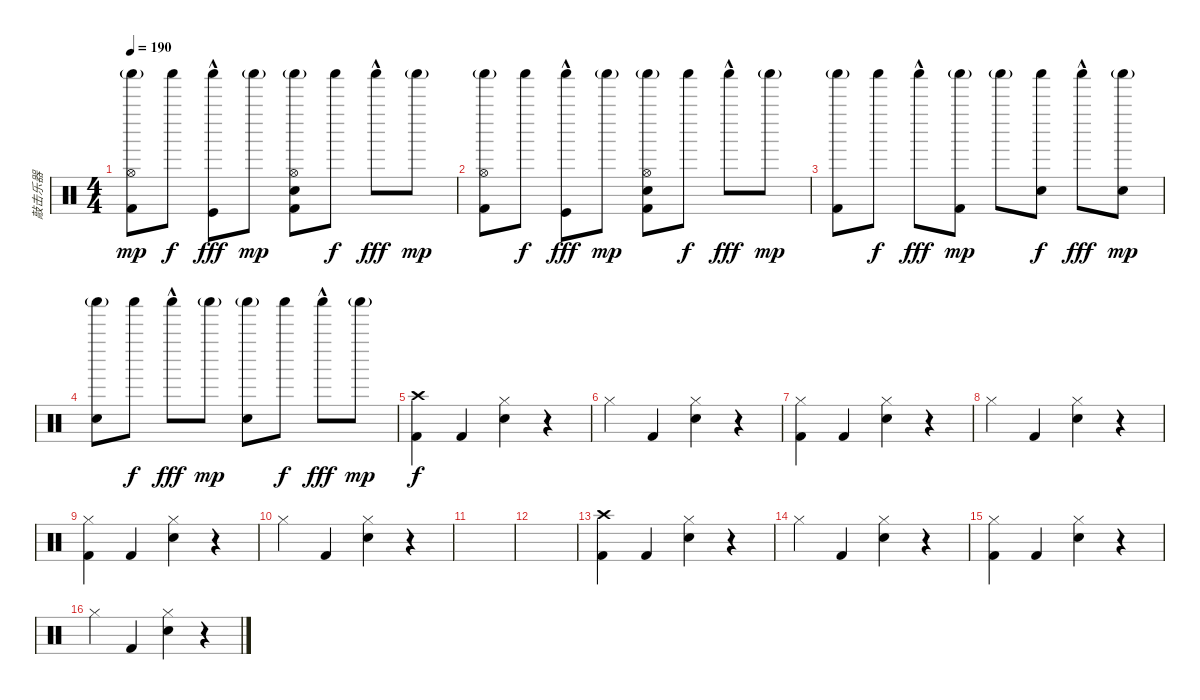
\track ("敲击乐器" "敲击乐器") {instrument percussion}
\staff {score}
\articulation defaults
\ts (4 4)
\tempo 190
\clef neutral
\ks c
("Hi-Hat (open)" "Kick (hit) 2" "Shaker (hit)"{g}).8{dy mp} "Shaker (hit)".8{dy f} ("Kick (hit)" "Shaker (hit)"{hac}).8{dy fff} "Shaker (hit)"{g}.8{dy mp} ("Hi-Hat (open)" "Snare (hit) 2" "Kick (hit) 2" "Shaker (hit)"{g}).8 "Shaker (hit)".8{dy f} "Shaker (hit)"{hac}.8{dy fff} "Shaker (hit)"{g}.8{dy mp} |
("Hi-Hat (open)" "Kick (hit) 2" "Shaker (hit)"{g}).8 "Shaker (hit)".8{dy f} ("Kick (hit)" "Shaker (hit)"{hac}).8{dy fff} "Shaker (hit)"{g}.8{dy mp} ("Hi-Hat (open)" "Snare (hit) 2" "Kick (hit) 2" "Shaker (hit)"{g}).8 "Shaker (hit)".8{dy f} "Shaker (hit)"{hac}.8{dy fff} "Shaker (hit)"{g}.8{dy mp} |
("Kick (hit) 2" "Shaker (hit)"{g}).8 "Shaker (hit)".8{dy f} "Shaker (hit)"{hac}.8{dy fff} ("Kick (hit) 2" "Shaker (hit)"{g}).8{dy mp} "Shaker (hit)"{g}.8 ("Snare (hit) 2" "Shaker (hit)").8{dy f} "Shaker (hit)"{hac}.8{dy fff} ("Snare (hit) 2" "Shaker (hit)"{g}).8{dy mp} |
("Electric Snare (hit)" "Shaker (hit)"{g}).8 "Shaker (hit)".8{dy f} "Shaker (hit)"{hac}.8{dy fff} "Shaker (hit)"{g}.8{dy mp} ("Snare (hit) 2" "Shaker (hit)"{g}).8 "Shaker (hit)".8{dy f} "Shaker (hit)"{hac}.8{dy fff} "Shaker (hit)"{g}.8{dy mp} |
("Kick (hit) 2" "Crash high (hit)").4{dy f} "Kick (hit) 2".4 ("Hi-Hat (closed)" "Electric Snare (hit)").4 r.4 |
"Hi-Hat (closed)".4 "Kick (hit) 2".4 ("Electric Snare (hit)" "Hi-Hat (closed)").4 r.4 |
("Kick (hit) 2" "Hi-Hat (closed)").4 "Kick (hit) 2".4 ("Hi-Hat (closed)" "Electric Snare (hit)").4 r.4 |
"Hi-Hat (closed)".4 "Kick (hit) 2".4 ("Electric Snare (hit)" "Hi-Hat (closed)").4 r.4 |
("Kick (hit) 2" "Hi-Hat (closed)").4 "Kick (hit) 2".4 ("Hi-Hat (closed)" "Electric Snare (hit)").4 r.4 |
"Hi-Hat (closed)".4 "Kick (hit) 2".4 ("Electric Snare (hit)" "Hi-Hat (closed)").4 r.4 |
|
|
("Kick (hit) 2" "Crash high (hit)").4 "Kick (hit) 2".4 ("Hi-Hat (closed)" "Electric Snare (hit)").4 r.4 |
"Hi-Hat (closed)".4 "Kick (hit) 2".4 ("Electric Snare (hit)" "Hi-Hat (closed)").4 r.4 |
("Kick (hit) 2" "Hi-Hat (closed)").4 "Kick (hit) 2".4 ("Hi-Hat (closed)" "Electric Snare (hit)").4 r.4 |
"Hi-Hat (closed)".4 "Kick (hit) 2".4 ("Electric Snare (hit)" "Hi-Hat (closed)").4 r.4
